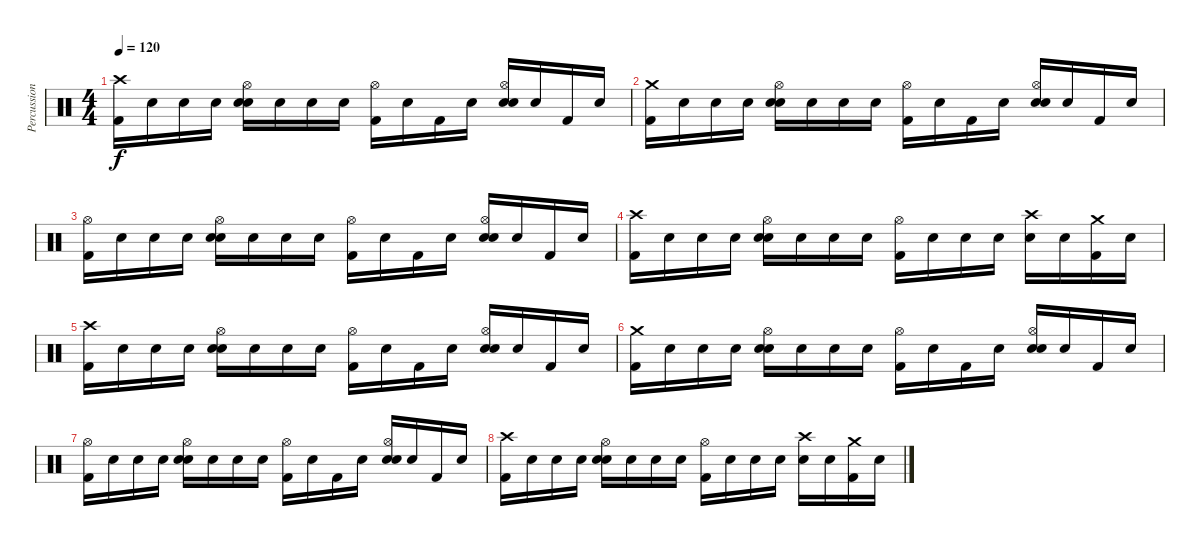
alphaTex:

\track ("Percussion" "Percussion") {instrument percussion}
\staff {score}
\articulation defaults
\ts (4 4)
\tempo 120
\clef neutral
\ks c
("Crash high (hit)" "Kick (hit) 2").16{dy f} "Snare (hit)".16 "Snare (hit)".16 "Snare (hit)".16 ("Hi-Hat (open)" "Electric Snare (hit)" "Snare (hit)").16 "Snare (hit)".16 "Snare (hit)".16 "Snare (hit)".16 ("Hi-Hat (open)" "Kick (hit) 2").16 "Snare (hit)".16 "Kick (hit) 2".16 "Snare (hit)".16 ("Hi-Hat (open)" "Electric Snare (hit)" "Snare (hit)").16 "Snare (hit)".16 "Kick (hit) 2".16 "Snare (hit)".16 |
("Crash medium (hit)" "Kick (hit) 2").16 "Snare (hit)".16 "Snare (hit)".16 "Snare (hit)".16 ("Hi-Hat (open)" "Electric Snare (hit)" "Snare (hit)").16 "Snare (hit)".16 "Snare (hit)".16 "Snare (hit)".16 ("Hi-Hat (open)" "Kick (hit) 2").16 "Snare (hit)".16 "Kick (hit) 2".16 "Snare (hit)".16 ("Hi-Hat (open)" "Electric Snare (hit)" "Snare (hit)").16 "Snare (hit)".16 "Kick (hit) 2".16 "Snare (hit)".16 |
("Hi-Hat (open)" "Kick (hit) 2").16 "Snare (hit)".16 "Snare (hit)".16 "Snare (hit)".16 ("Hi-Hat (open)" "Electric Snare (hit)" "Snare (hit)").16 "Snare (hit)".16 "Snare (hit)".16 "Snare (hit)".16 ("Hi-Hat (open)" "Kick (hit) 2").16 "Snare (hit)".16 "Kick (hit) 2".16 "Snare (hit)".16 ("Hi-Hat (open)" "Electric Snare (hit)" "Snare (hit)").16 "Snare (hit)".16 "Kick (hit) 2".16 "Snare (hit)".16 |
("Crash high (hit)" "Kick (hit) 2").16 "Snare (hit)".16 "Snare (hit)".16 "Snare (hit)".16 ("Hi-Hat (open)" "Electric Snare (hit)" "Snare (hit)").16 "Snare (hit)".16 "Snare (hit)".16 "Snare (hit)".16 ("Hi-Hat (open)" "Kick (hit) 2").16 "Snare (hit)".16 "Snare (hit)".16 "Snare (hit)".16 ("Crash high (hit)" "Electric Snare (hit)").16 "Snare (hit)".16 ("Crash medium (hit)" "Kick (hit) 2").16 "Snare (hit)".16 |
("Crash high (hit)" "Kick (hit) 2").16 "Snare (hit)".16 "Snare (hit)".16 "Snare (hit)".16 ("Hi-Hat (open)" "Electric Snare (hit)" "Snare (hit)").16 "Snare (hit)".16 "Snare (hit)".16 "Snare (hit)".16 ("Hi-Hat (open)" "Kick (hit) 2").16 "Snare (hit)".16 "Kick (hit) 2".16 "Snare (hit)".16 ("Hi-Hat (open)" "Electric Snare (hit)" "Snare (hit)").16 "Snare (hit)".16 "Kick (hit) 2".16 "Snare (hit)".16 |
("Crash medium (hit)" "Kick (hit) 2").16 "Snare (hit)".16 "Snare (hit)".16 "Snare (hit)".16 ("Hi-Hat (open)" "Electric Snare (hit)" "Snare (hit)").16 "Snare (hit)".16 "Snare (hit)".16 "Snare (hit)".16 ("Hi-Hat (open)" "Kick (hit) 2").16 "Snare (hit)".16 "Kick (hit) 2".16 "Snare (hit)".16 ("Hi-Hat (open)" "Electric Snare (hit)" "Snare (hit)").16 "Snare (hit)".16 "Kick (hit) 2".16 "Snare (hit)".16 |
("Hi-Hat (open)" "Kick (hit) 2").16 "Snare (hit)".16 "Snare (hit)".16 "Snare (hit)".16 ("Hi-Hat (open)" "Electric Snare (hit)" "Snare (hit)").16 "Snare (hit)".16 "Snare (hit)".16 "Snare (hit)".16 ("Hi-Hat (open)" "Kick (hit) 2").16 "Snare (hit)".16 "Kick (hit) 2".16 "Snare (hit)".16 ("Hi-Hat (open)" "Electric Snare (hit)" "Snare (hit)").16 "Snare (hit)".16 "Kick (hit) 2".16 "Snare (hit)".16 |
("Crash high (hit)" "Kick (hit) 2").16 "Snare (hit)".16 "Snare (hit)".16 "Snare (hit)".16 ("Hi-Hat (open)" "Electric Snare (hit)" "Snare (hit)").16 "Snare (hit)".16 "Snare (hit)".16 "Snare (hit)".16 ("Hi-Hat (open)" "Kick (hit) 2").16 "Snare (hit)".16 "Snare (hit)".16 "Snare (hit)".16 ("Crash high (hit)" "Electric Snare (hit)").16 "Snare (hit)".16 ("Crash medium (hit)" "Kick (hit) 2").16 "Snare (hit)".16
